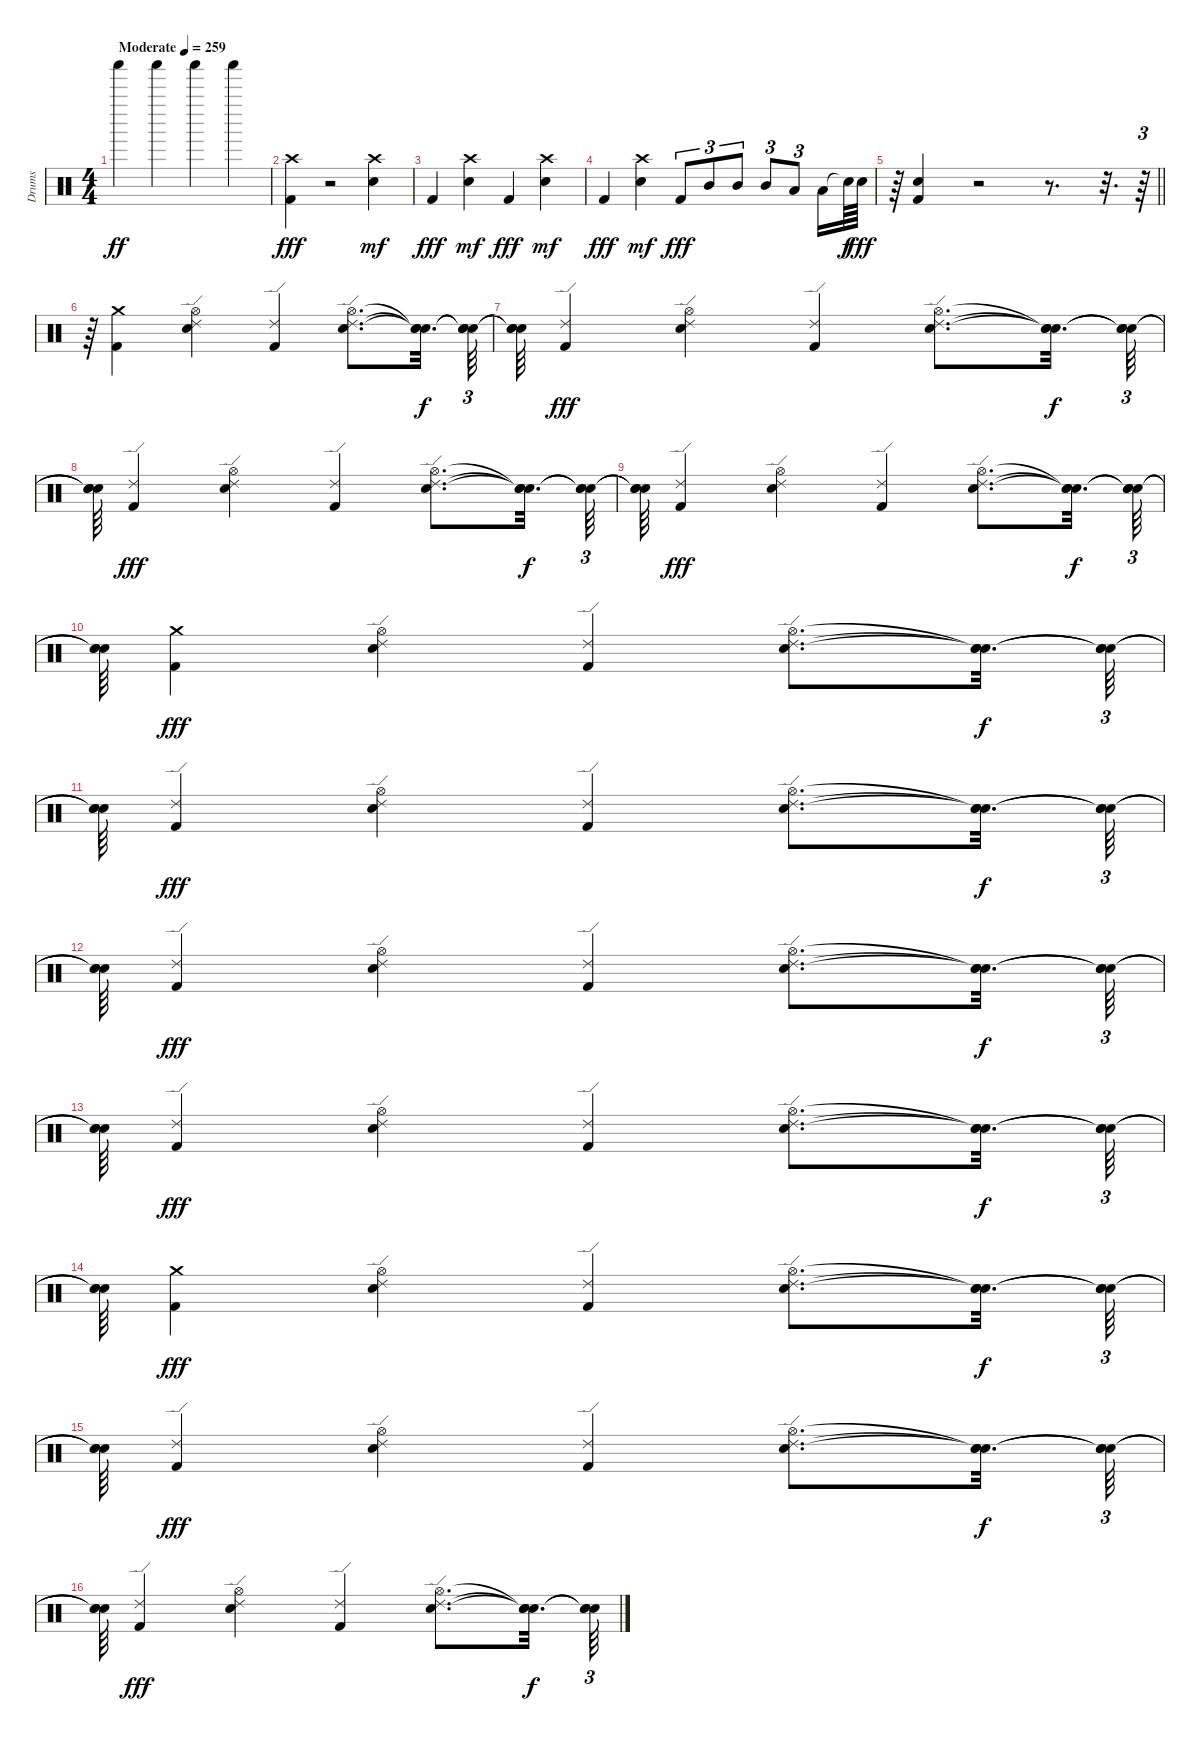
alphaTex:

\track ("Drums" "Drums") {instrument percussion}
\staff {score}
\articulation defaults
\ts (4 4)
\section ("" "")
\tempo (259 "Moderate")
\clef neutral
\ks c "Shaker (hit)".4{dy ff} "Shaker (hit)".4 "Shaker (hit)".4 "Shaker (hit)".4
|
("Kick (hit) 2" "Crash high (hit)").4{dy fff} r.2 ("Electric Snare (hit)" "Crash high (hit)").4{dy mf} |
"Kick (hit) 2".4{dy fff} ("Electric Snare (hit)" "Crash high (hit)").4{dy mf} "Kick (hit) 2".4{dy fff} ("Electric Snare (hit)" "Crash high (hit)").4{dy mf} |
"Kick (hit) 2".4{dy fff} ("Electric Snare (hit)" "Crash high (hit)").4{dy mf} "Kick (hit) 2".8{tu (3 2) dy fff} "Mid Tom (hit)".8{tu (3 2)} "Mid Tom (hit)".8{tu (3 2)} "Mid Tom (hit)".8{tu (3 2)} "Low Tom (hit)".8{tu (3 2)} "Low Tom (hit)".16 "Snare (hit)"{t}.64{dy f} "Electric Snare (hit)".64{dy fff} |
\barLineRight lightlight
r.64 ("Kick (hit) 2" "Electric Snare (hit)").4 r.2 r.8{d} r.32{d} r.64{tu (3 2)} |
r.64 ("Kick (hit) 2" "Crash medium (hit)").4 ("Electric Snare (hit)" "Ride (edge) 2" "Hi-Hat (open)").4 ("Kick (hit) 2" "Ride (edge) 2").4 ("Electric Snare (hit)" "Ride (edge) 2" "Hi-Hat (open)").8{d} ("Snare (hit)"{t} "Snare (hit)"{t} "Snare (hit)"{t}).32{d dy f} ("Snare (hit)"{t} "Snare (hit)"{t} "Snare (hit)"{t}).64{tu (3 2)} |
("Snare (hit)"{t} "Snare (hit)"{t} "Snare (hit)"{t}).64 ("Kick (hit) 2" "Ride (edge) 2").4{dy fff} ("Electric Snare (hit)" "Ride (edge) 2" "Hi-Hat (open)").4 ("Kick (hit) 2" "Ride (edge) 2").4 ("Electric Snare (hit)" "Ride (edge) 2" "Hi-Hat (open)").8{d} ("Snare (hit)"{t} "Snare (hit)"{t} "Snare (hit)"{t}).32{d dy f} ("Snare (hit)"{t} "Snare (hit)"{t} "Snare (hit)"{t}).64{tu (3 2)} |
("Snare (hit)"{t} "Snare (hit)"{t} "Snare (hit)"{t}).64 ("Kick (hit) 2" "Ride (edge) 2").4{dy fff} ("Electric Snare (hit)" "Ride (edge) 2" "Hi-Hat (open)").4 ("Kick (hit) 2" "Ride (edge) 2").4 ("Electric Snare (hit)" "Ride (edge) 2" "Hi-Hat (open)").8{d} ("Snare (hit)"{t} "Snare (hit)"{t} "Snare (hit)"{t}).32{d dy f} ("Snare (hit)"{t} "Snare (hit)"{t} "Snare (hit)"{t}).64{tu (3 2)} |
("Snare (hit)"{t} "Snare (hit)"{t} "Snare (hit)"{t}).64 ("Kick (hit) 2" "Ride (edge) 2").4{dy fff} ("Electric Snare (hit)" "Ride (edge) 2" "Hi-Hat (open)").4 ("Kick (hit) 2" "Ride (edge) 2").4 ("Electric Snare (hit)" "Ride (edge) 2" "Hi-Hat (open)").8{d} ("Snare (hit)"{t} "Snare (hit)"{t} "Snare (hit)"{t}).32{d dy f} ("Snare (hit)"{t} "Snare (hit)"{t} "Snare (hit)"{t}).64{tu (3 2)} |
("Snare (hit)"{t} "Snare (hit)"{t} "Snare (hit)"{t}).64 ("Kick (hit) 2" "Crash medium (hit)").4{dy fff} ("Electric Snare (hit)" "Ride (edge) 2" "Hi-Hat (open)").4 ("Kick (hit) 2" "Ride (edge) 2").4 ("Electric Snare (hit)" "Ride (edge) 2" "Hi-Hat (open)").8{d} ("Snare (hit)"{t} "Snare (hit)"{t} "Snare (hit)"{t}).32{d dy f} ("Snare (hit)"{t} "Snare (hit)"{t} "Snare (hit)"{t}).64{tu (3 2)} |
("Snare (hit)"{t} "Snare (hit)"{t} "Snare (hit)"{t}).64 ("Kick (hit) 2" "Ride (edge) 2").4{dy fff} ("Electric Snare (hit)" "Ride (edge) 2" "Hi-Hat (open)").4 ("Kick (hit) 2" "Ride (edge) 2").4 ("Electric Snare (hit)" "Ride (edge) 2" "Hi-Hat (open)").8{d} ("Snare (hit)"{t} "Snare (hit)"{t} "Snare (hit)"{t}).32{d dy f} ("Snare (hit)"{t} "Snare (hit)"{t} "Snare (hit)"{t}).64{tu (3 2)} |
("Snare (hit)"{t} "Snare (hit)"{t} "Snare (hit)"{t}).64 ("Kick (hit) 2" "Ride (edge) 2").4{dy fff} ("Electric Snare (hit)" "Ride (edge) 2" "Hi-Hat (open)").4 ("Kick (hit) 2" "Ride (edge) 2").4 ("Electric Snare (hit)" "Ride (edge) 2" "Hi-Hat (open)").8{d} ("Snare (hit)"{t} "Snare (hit)"{t} "Snare (hit)"{t}).32{d dy f} ("Snare (hit)"{t} "Snare (hit)"{t} "Snare (hit)"{t}).64{tu (3 2)} |
("Snare (hit)"{t} "Snare (hit)"{t} "Snare (hit)"{t}).64 ("Kick (hit) 2" "Ride (edge) 2").4{dy fff} ("Electric Snare (hit)" "Ride (edge) 2" "Hi-Hat (open)").4 ("Kick (hit) 2" "Ride (edge) 2").4 ("Electric Snare (hit)" "Ride (edge) 2" "Hi-Hat (open)").8{d} ("Snare (hit)"{t} "Snare (hit)"{t} "Snare (hit)"{t}).32{d dy f} ("Snare (hit)"{t} "Snare (hit)"{t} "Snare (hit)"{t}).64{tu (3 2)} |
("Snare (hit)"{t} "Snare (hit)"{t} "Snare (hit)"{t}).64 ("Kick (hit) 2" "Crash medium (hit)").4{dy fff} ("Electric Snare (hit)" "Ride (edge) 2" "Hi-Hat (open)").4 ("Kick (hit) 2" "Ride (edge) 2").4 ("Electric Snare (hit)" "Ride (edge) 2" "Hi-Hat (open)").8{d} ("Snare (hit)"{t} "Snare (hit)"{t} "Snare (hit)"{t}).32{d dy f} ("Snare (hit)"{t} "Snare (hit)"{t} "Snare (hit)"{t}).64{tu (3 2)} |
("Snare (hit)"{t} "Snare (hit)"{t} "Snare (hit)"{t}).64 ("Kick (hit) 2" "Ride (edge) 2").4{dy fff} ("Electric Snare (hit)" "Ride (edge) 2" "Hi-Hat (open)").4 ("Kick (hit) 2" "Ride (edge) 2").4 ("Electric Snare (hit)" "Ride (edge) 2" "Hi-Hat (open)").8{d} ("Snare (hit)"{t} "Snare (hit)"{t} "Snare (hit)"{t}).32{d dy f} ("Snare (hit)"{t} "Snare (hit)"{t} "Snare (hit)"{t}).64{tu (3 2)} |
("Snare (hit)"{t} "Snare (hit)"{t} "Snare (hit)"{t}).64 ("Kick (hit) 2" "Ride (edge) 2").4{dy fff} ("Electric Snare (hit)" "Ride (edge) 2" "Hi-Hat (open)").4 ("Kick (hit) 2" "Ride (edge) 2").4 ("Electric Snare (hit)" "Ride (edge) 2" "Hi-Hat (open)").8{d} ("Snare (hit)"{t} "Snare (hit)"{t} "Snare (hit)"{t}).32{d dy f} ("Snare (hit)"{t} "Snare (hit)"{t} "Snare (hit)"{t}).64{tu (3 2)}
